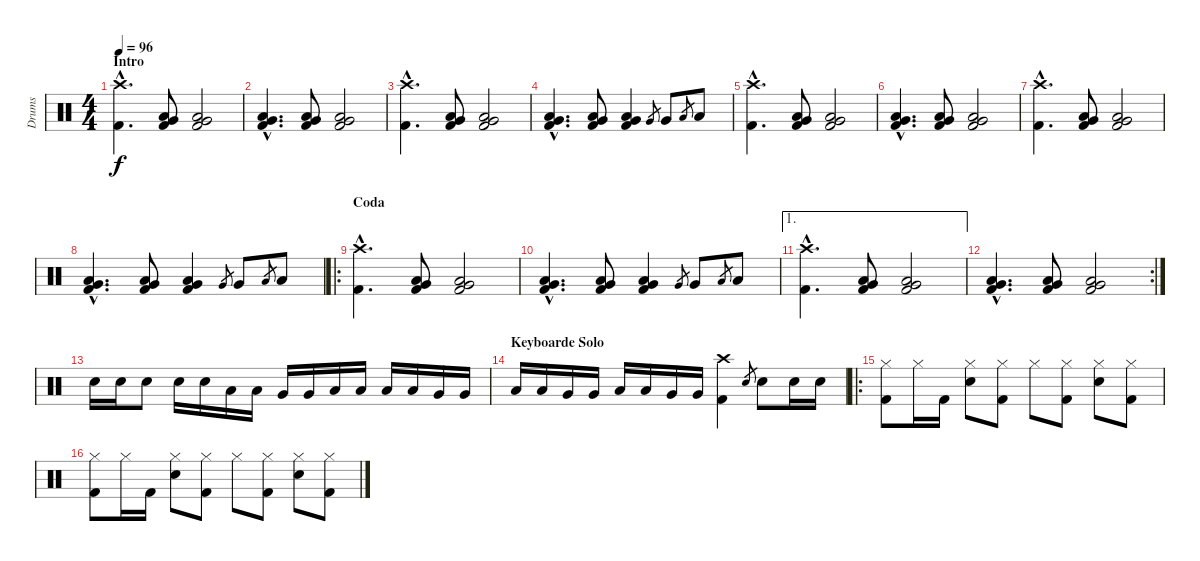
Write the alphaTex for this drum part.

\track ("Drums" "Drums") {instrument percussion}
\staff {score}
\articulation defaults
\ts (4 4)
\section ("" "Intro")
\tempo 96
\clef neutral
\ks c
("Crash high (hit)"{hac} "Kick (hit) 2"{hac}).4{d dy f} ("Very Low Tom (hit)" "Low Tom (hit)" "Kick (hit) 2").8 ("Very Low Tom (hit)" "Low Tom (hit)" "Kick (hit) 2").2 |
("Very Low Tom (hit)"{hac} "Low Tom (hit)"{hac} "Kick (hit) 2"{hac}).4{d} ("Very Low Tom (hit)" "Low Tom (hit)" "Kick (hit) 2").8 ("Very Low Tom (hit)" "Low Tom (hit)" "Kick (hit) 2").2 |
("Crash high (hit)"{hac} "Kick (hit) 2"{hac}).4{d} ("Very Low Tom (hit)" "Low Tom (hit)" "Kick (hit) 2").8 ("Very Low Tom (hit)" "Low Tom (hit)" "Kick (hit) 2").2 |
("Very Low Tom (hit)"{hac} "Low Tom (hit)"{hac} "Kick (hit) 2"{hac}).4{d} ("Very Low Tom (hit)" "Low Tom (hit)" "Kick (hit) 2").8 ("Very Low Tom (hit)" "Low Tom (hit)" "Kick (hit) 2").4 "Very Low Tom (hit)".8{gr} "Very Low Tom (hit)".8 "Low Floor Tom (hit)".8{gr} "Low Floor Tom (hit)".8 |
("Crash high (hit)"{hac} "Kick (hit) 2"{hac}).4{d} ("Very Low Tom (hit)" "Low Tom (hit)" "Kick (hit) 2").8 ("Very Low Tom (hit)" "Low Tom (hit)" "Kick (hit) 2").2 |
("Very Low Tom (hit)"{hac} "Low Tom (hit)"{hac} "Kick (hit) 2"{hac}).4{d} ("Very Low Tom (hit)" "Low Tom (hit)" "Kick (hit) 2").8 ("Very Low Tom (hit)" "Low Tom (hit)" "Kick (hit) 2").2 |
("Crash high (hit)"{hac} "Kick (hit) 2"{hac}).4{d} ("Very Low Tom (hit)" "Low Tom (hit)" "Kick (hit) 2").8 ("Very Low Tom (hit)" "Low Tom (hit)" "Kick (hit) 2").2 |
("Very Low Tom (hit)"{hac} "Low Tom (hit)"{hac} "Kick (hit) 2"{hac}).4{d} ("Very Low Tom (hit)" "Low Tom (hit)" "Kick (hit) 2").8 ("Very Low Tom (hit)" "Low Tom (hit)" "Kick (hit) 2").4 "Very Low Tom (hit)".8{gr} "Very Low Tom (hit)".8 "Low Floor Tom (hit)".8{gr} "Low Floor Tom (hit)".8 |
\ro
\section ("" "Coda")
("Crash high (hit)"{hac} "Kick (hit) 2"{hac}).4{d} ("Very Low Tom (hit)" "Low Tom (hit)" "Kick (hit) 2").8 ("Very Low Tom (hit)" "Low Tom (hit)" "Kick (hit) 2").2 |
("Very Low Tom (hit)"{hac} "Low Tom (hit)"{hac} "Kick (hit) 2"{hac}).4{d} ("Very Low Tom (hit)" "Low Tom (hit)" "Kick (hit) 2").8 ("Very Low Tom (hit)" "Low Tom (hit)" "Kick (hit) 2").4 "Very Low Tom (hit)".8{gr} "Very Low Tom (hit)".8 "Low Floor Tom (hit)".8{gr} "Low Floor Tom (hit)".8 |
\ae 1
("Crash high (hit)"{hac} "Kick (hit) 2"{hac}).4{d} ("Very Low Tom (hit)" "Low Tom (hit)" "Kick (hit) 2").8 ("Very Low Tom (hit)" "Low Tom (hit)" "Kick (hit) 2").2 |
\rc 2
("Very Low Tom (hit)"{hac} "Low Tom (hit)"{hac} "Kick (hit) 2"{hac}).4{d} ("Very Low Tom (hit)" "Low Tom (hit)" "Kick (hit) 2").8 ("Very Low Tom (hit)" "Low Tom (hit)" "Kick (hit) 2").2 |
"Snare (hit) 2".16 "Snare (hit) 2".16 "Snare (hit) 2".8 "Snare (hit) 2".16 "Snare (hit) 2".16 "Low Tom (hit)".16 "Low Tom (hit)".16 "Very Low Tom (hit)".16 "Very Low Tom (hit)".16 "Low Floor Tom (hit)".16 "Low Floor Tom (hit)".16 "Low Tom (hit)".16 "Low Tom (hit)".16 "Very Low Tom (hit)".16 "Very Low Tom (hit)".16 |
\section ("" "Keyboarde Solo")
"Low Floor Tom (hit)".16 "Low Floor Tom (hit)".16 "Very Low Tom (hit)".16 "Very Low Tom (hit)".16 "Low Tom (hit)".16 "Low Tom (hit)".16 "Very Low Tom (hit)".16 "Very Low Tom (hit)".16 ("Crash high (hit)" "Kick (hit) 2").4 "Snare (hit) 2".8{gr} "Snare (hit) 2".8 "Snare (hit) 2".16 "Snare (hit) 2".16 |
\ro
("Hi-Hat (closed)" "Kick (hit) 2").8 "Hi-Hat (closed)".16 "Kick (hit) 2".16 ("Hi-Hat (closed)" "Snare (hit) 2").8 ("Hi-Hat (closed)" "Kick (hit) 2").8 "Hi-Hat (closed)".8 ("Hi-Hat (closed)" "Kick (hit) 2").8 ("Hi-Hat (closed)" "Snare (hit) 2").8 ("Hi-Hat (closed)" "Kick (hit) 2").8 |
("Hi-Hat (closed)" "Kick (hit) 2").8 "Hi-Hat (closed)".16 "Kick (hit) 2".16 ("Hi-Hat (closed)" "Snare (hit) 2").8 ("Hi-Hat (closed)" "Kick (hit) 2").8 "Hi-Hat (closed)".8 ("Hi-Hat (closed)" "Kick (hit) 2").8 ("Hi-Hat (closed)" "Snare (hit) 2").8 ("Hi-Hat (closed)" "Kick (hit) 2").8
